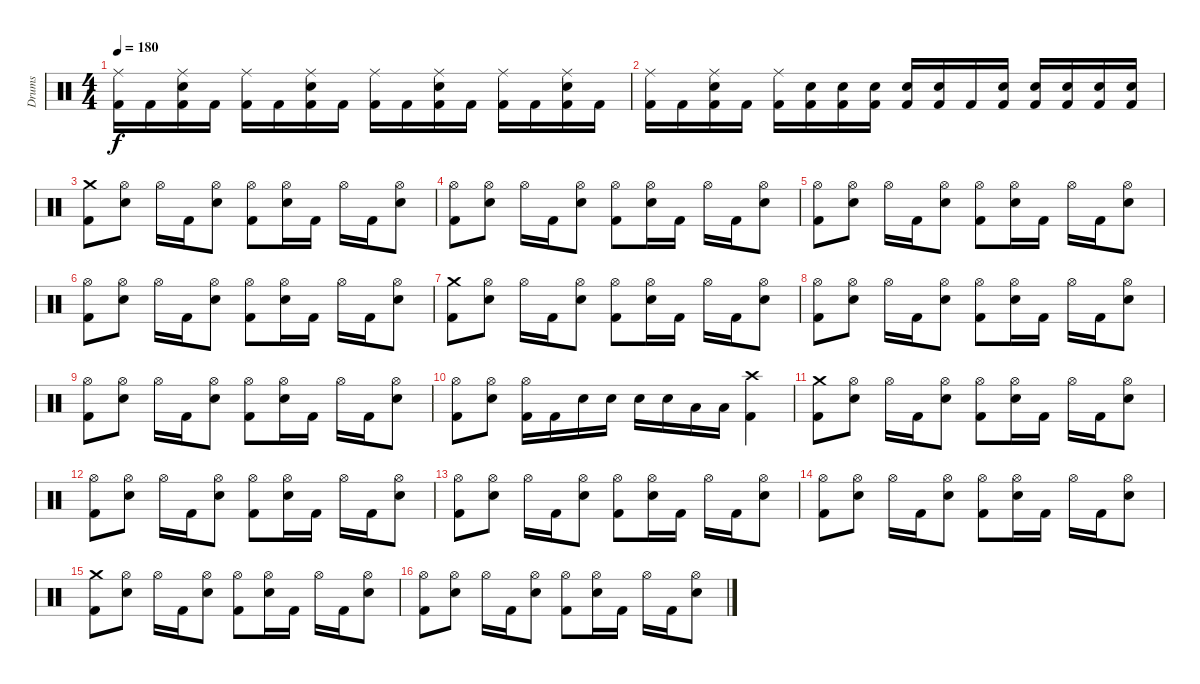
\track ("Drums" "Drums") {instrument percussion}
\staff {score}
\articulation defaults
\ts (4 4)
\tempo 180
\clef neutral
\ks c
("Ride (middle)" "Kick (hit) 2").16{dy f} "Kick (hit) 2".16 ("Ride (middle)" "Snare (hit) 2" "Kick (hit) 2").16 "Kick (hit) 2".16 ("Ride (middle)" "Kick (hit) 2").16 "Kick (hit) 2".16 ("Ride (middle)" "Snare (hit) 2" "Kick (hit) 2").16 "Kick (hit) 2".16 ("Ride (middle)" "Kick (hit) 2").16 "Kick (hit) 2".16 ("Ride (middle)" "Snare (hit) 2" "Kick (hit) 2").16 "Kick (hit) 2".16 ("Ride (middle)" "Kick (hit) 2").16 "Kick (hit) 2".16 ("Ride (middle)" "Snare (hit) 2" "Kick (hit) 2").16 "Kick (hit) 2".16 |
("Ride (middle)" "Kick (hit) 2").16 "Kick (hit) 2".16 ("Ride (middle)" "Snare (hit) 2" "Kick (hit) 2").16 "Kick (hit) 2".16 ("Ride (middle)" "Kick (hit) 2").16 ("Snare (hit) 2" "Kick (hit) 2").16 ("Snare (hit) 2" "Kick (hit) 2").16 ("Snare (hit) 2" "Kick (hit) 2").16 ("Snare (hit) 2" "Kick (hit) 2").16 ("Snare (hit) 2" "Kick (hit) 2").16 "Kick (hit) 2".16 ("Snare (hit) 2" "Kick (hit) 2").16 ("Snare (hit) 2" "Kick (hit) 2").16 ("Snare (hit) 2" "Kick (hit) 2").16 ("Snare (hit) 2" "Kick (hit) 2").16 ("Snare (hit) 2" "Kick (hit) 2").16 |
("Crash medium (hit)" "Kick (hit) 2").8 ("Hi-Hat (open)" "Snare (hit) 2").8 "Hi-Hat (open)".16 "Kick (hit) 2".16 ("Hi-Hat (open)" "Snare (hit) 2").8 ("Hi-Hat (open)" "Kick (hit) 2").8 ("Hi-Hat (open)" "Snare (hit) 2").16 "Kick (hit) 2".16 "Hi-Hat (open)".16 "Kick (hit) 2".16 ("Hi-Hat (open)" "Snare (hit) 2").8 |
("Hi-Hat (open)" "Kick (hit) 2").8 ("Hi-Hat (open)" "Snare (hit) 2").8 "Hi-Hat (open)".16 "Kick (hit) 2".16 ("Hi-Hat (open)" "Snare (hit) 2").8 ("Hi-Hat (open)" "Kick (hit) 2").8 ("Hi-Hat (open)" "Snare (hit) 2").16 "Kick (hit) 2".16 "Hi-Hat (open)".16 "Kick (hit) 2".16 ("Hi-Hat (open)" "Snare (hit) 2").8 |
("Hi-Hat (open)" "Kick (hit) 2").8 ("Hi-Hat (open)" "Snare (hit) 2").8 "Hi-Hat (open)".16 "Kick (hit) 2".16 ("Hi-Hat (open)" "Snare (hit) 2").8 ("Hi-Hat (open)" "Kick (hit) 2").8 ("Hi-Hat (open)" "Snare (hit) 2").16 "Kick (hit) 2".16 "Hi-Hat (open)".16 "Kick (hit) 2".16 ("Hi-Hat (open)" "Snare (hit) 2").8 |
("Hi-Hat (open)" "Kick (hit) 2").8 ("Hi-Hat (open)" "Snare (hit) 2").8 "Hi-Hat (open)".16 "Kick (hit) 2".16 ("Hi-Hat (open)" "Snare (hit) 2").8 ("Hi-Hat (open)" "Kick (hit) 2").8 ("Hi-Hat (open)" "Snare (hit) 2").16 "Kick (hit) 2".16 "Hi-Hat (open)".16 "Kick (hit) 2".16 ("Hi-Hat (open)" "Snare (hit) 2").8 |
("Crash medium (hit)" "Kick (hit) 2").8 ("Hi-Hat (open)" "Snare (hit) 2").8 "Hi-Hat (open)".16 "Kick (hit) 2".16 ("Hi-Hat (open)" "Snare (hit) 2").8 ("Hi-Hat (open)" "Kick (hit) 2").8 ("Hi-Hat (open)" "Snare (hit) 2").16 "Kick (hit) 2".16 "Hi-Hat (open)".16 "Kick (hit) 2".16 ("Hi-Hat (open)" "Snare (hit) 2").8 |
("Hi-Hat (open)" "Kick (hit) 2").8 ("Hi-Hat (open)" "Snare (hit) 2").8 "Hi-Hat (open)".16 "Kick (hit) 2".16 ("Hi-Hat (open)" "Snare (hit) 2").8 ("Hi-Hat (open)" "Kick (hit) 2").8 ("Hi-Hat (open)" "Snare (hit) 2").16 "Kick (hit) 2".16 "Hi-Hat (open)".16 "Kick (hit) 2".16 ("Hi-Hat (open)" "Snare (hit) 2").8 |
("Hi-Hat (open)" "Kick (hit) 2").8 ("Hi-Hat (open)" "Snare (hit) 2").8 "Hi-Hat (open)".16 "Kick (hit) 2".16 ("Hi-Hat (open)" "Snare (hit) 2").8 ("Hi-Hat (open)" "Kick (hit) 2").8 ("Hi-Hat (open)" "Snare (hit) 2").16 "Kick (hit) 2".16 "Hi-Hat (open)".16 "Kick (hit) 2".16 ("Hi-Hat (open)" "Snare (hit) 2").8 |
("Hi-Hat (open)" "Kick (hit) 2").8 ("Hi-Hat (open)" "Snare (hit) 2").8 ("Hi-Hat (open)" "Kick (hit) 2").16 "Kick (hit) 2".16 "Snare (hit) 2".16 "Snare (hit) 2".16 "Snare (hit) 2".16 "Snare (hit) 2".16 "Low Tom (hit)".16 "Low Tom (hit)".16 ("Crash high (hit)" "Kick (hit) 2").4 |
("Crash medium (hit)" "Kick (hit) 2").8 ("Hi-Hat (open)" "Snare (hit) 2").8 "Hi-Hat (open)".16 "Kick (hit) 2".16 ("Hi-Hat (open)" "Snare (hit) 2").8 ("Hi-Hat (open)" "Kick (hit) 2").8 ("Hi-Hat (open)" "Snare (hit) 2").16 "Kick (hit) 2".16 "Hi-Hat (open)".16 "Kick (hit) 2".16 ("Hi-Hat (open)" "Snare (hit) 2").8 |
("Hi-Hat (open)" "Kick (hit) 2").8 ("Hi-Hat (open)" "Snare (hit) 2").8 "Hi-Hat (open)".16 "Kick (hit) 2".16 ("Hi-Hat (open)" "Snare (hit) 2").8 ("Hi-Hat (open)" "Kick (hit) 2").8 ("Hi-Hat (open)" "Snare (hit) 2").16 "Kick (hit) 2".16 "Hi-Hat (open)".16 "Kick (hit) 2".16 ("Hi-Hat (open)" "Snare (hit) 2").8 |
("Hi-Hat (open)" "Kick (hit) 2").8 ("Hi-Hat (open)" "Snare (hit) 2").8 "Hi-Hat (open)".16 "Kick (hit) 2".16 ("Hi-Hat (open)" "Snare (hit) 2").8 ("Hi-Hat (open)" "Kick (hit) 2").8 ("Hi-Hat (open)" "Snare (hit) 2").16 "Kick (hit) 2".16 "Hi-Hat (open)".16 "Kick (hit) 2".16 ("Hi-Hat (open)" "Snare (hit) 2").8 |
("Hi-Hat (open)" "Kick (hit) 2").8 ("Hi-Hat (open)" "Snare (hit) 2").8 "Hi-Hat (open)".16 "Kick (hit) 2".16 ("Hi-Hat (open)" "Snare (hit) 2").8 ("Hi-Hat (open)" "Kick (hit) 2").8 ("Hi-Hat (open)" "Snare (hit) 2").16 "Kick (hit) 2".16 "Hi-Hat (open)".16 "Kick (hit) 2".16 ("Hi-Hat (open)" "Snare (hit) 2").8 |
("Crash medium (hit)" "Kick (hit) 2").8 ("Hi-Hat (open)" "Snare (hit) 2").8 "Hi-Hat (open)".16 "Kick (hit) 2".16 ("Hi-Hat (open)" "Snare (hit) 2").8 ("Hi-Hat (open)" "Kick (hit) 2").8 ("Hi-Hat (open)" "Snare (hit) 2").16 "Kick (hit) 2".16 "Hi-Hat (open)".16 "Kick (hit) 2".16 ("Hi-Hat (open)" "Snare (hit) 2").8 |
("Hi-Hat (open)" "Kick (hit) 2").8 ("Hi-Hat (open)" "Snare (hit) 2").8 "Hi-Hat (open)".16 "Kick (hit) 2".16 ("Hi-Hat (open)" "Snare (hit) 2").8 ("Hi-Hat (open)" "Kick (hit) 2").8 ("Hi-Hat (open)" "Snare (hit) 2").16 "Kick (hit) 2".16 "Hi-Hat (open)".16 "Kick (hit) 2".16 ("Hi-Hat (open)" "Snare (hit) 2").8
